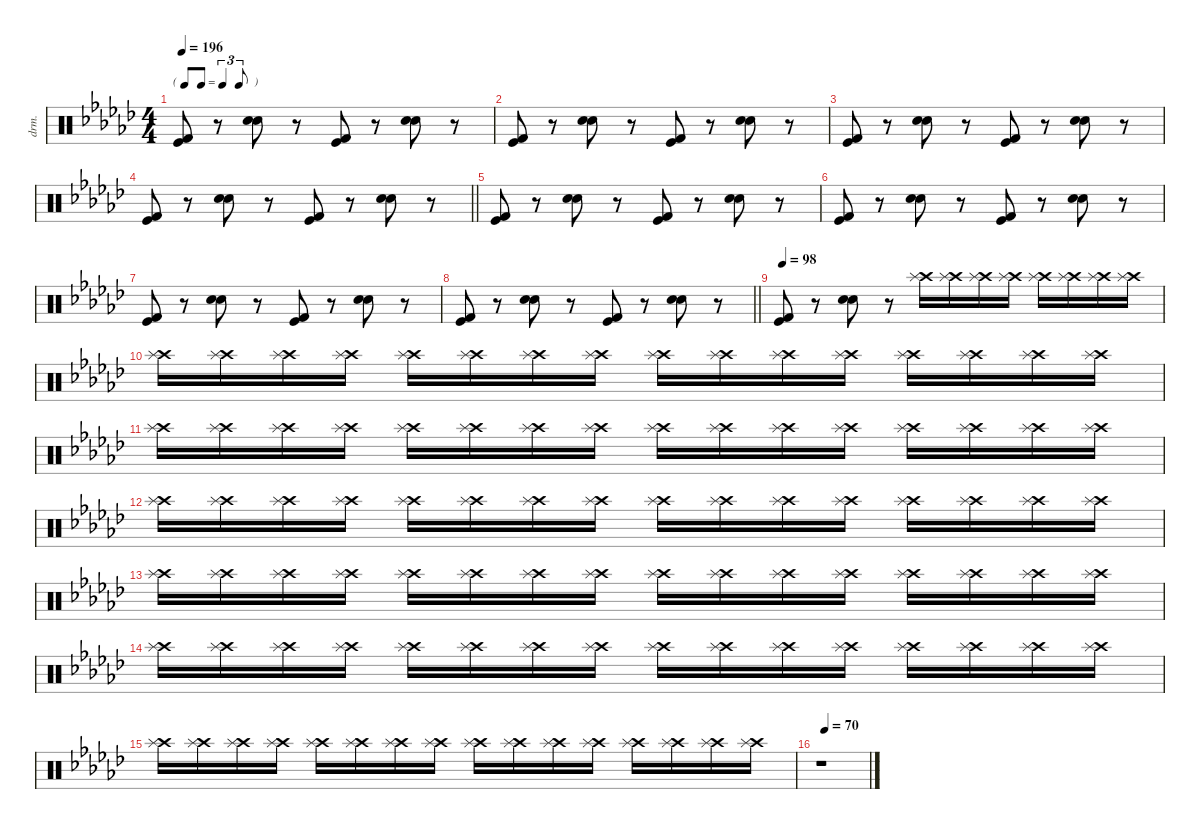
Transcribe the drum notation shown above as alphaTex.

\defaultSystemsLayout 4
\hideDynamics
\bracketExtendMode nobrackets
\otherSystemsTrackNameOrientation horizontal
\track ("Percussions" "drm.") {defaultSystemsLayout 4 instrument percussion}
\staff {score}
\articulation defaults
\ts (4 4)
\tf triplet8th
\tempo 196
\clef neutral
\ks gb
("Kick (hit) 2"{acc forcenatural} "Kick (hit)"{acc forcenatural}).8{dy f beam Up} r.8{beam Up} ("Snare (hit) 2"{acc forcenatural} "Snare (hit) 2"{acc forcenatural}).8{beam Down} r.8{beam Down} ("Kick (hit) 2"{acc forcenatural} "Kick (hit)"{acc forcenatural}).8{beam Up} r.8{beam Up} ("Snare (hit) 2"{acc forcenatural} "Snare (hit) 2"{acc forcenatural}).8{beam Down} r.8{beam Down} |
("Kick (hit) 2"{acc forcenatural} "Kick (hit)"{acc forcenatural}).8{beam Up} r.8{beam Up} ("Snare (hit) 2"{acc forcenatural} "Snare (hit) 2"{acc forcenatural}).8{beam Down} r.8{beam Down} ("Kick (hit) 2"{acc forcenatural} "Kick (hit)"{acc forcenatural}).8{beam Up} r.8{beam Up} ("Snare (hit) 2"{acc forcenatural} "Snare (hit) 2"{acc forcenatural}).8{beam Down} r.8{beam Down} |
("Kick (hit) 2"{acc forcenatural} "Kick (hit)"{acc forcenatural}).8{beam Up} r.8{beam Up} ("Snare (hit) 2"{acc forcenatural} "Snare (hit) 2"{acc forcenatural}).8{beam Down} r.8{beam Down} ("Kick (hit) 2"{acc forcenatural} "Kick (hit)"{acc forcenatural}).8{beam Up} r.8{beam Up} ("Snare (hit) 2"{acc forcenatural} "Snare (hit) 2"{acc forcenatural}).8{beam Down} r.8{beam Down} |
\barLineRight lightlight
("Kick (hit) 2"{acc forcenatural} "Kick (hit)"{acc forcenatural}).8{beam Up} r.8{beam Up} ("Snare (hit) 2"{acc forcenatural} "Snare (hit) 2"{acc forcenatural}).8{beam Down} r.8{beam Down} ("Kick (hit) 2"{acc forcenatural} "Kick (hit)"{acc forcenatural}).8{beam Up} r.8{beam Up} ("Snare (hit) 2"{acc forcenatural} "Snare (hit) 2"{acc forcenatural}).8{beam Down} r.8{beam Down} |
("Kick (hit) 2"{acc forcenatural} "Kick (hit)"{acc forcenatural}).8{beam Up} r.8{beam Up} ("Snare (hit) 2"{acc forcenatural} "Snare (hit) 2"{acc forcenatural}).8{beam Down} r.8{beam Down} ("Kick (hit) 2"{acc forcenatural} "Kick (hit)"{acc forcenatural}).8{beam Up} r.8{beam Up} ("Snare (hit) 2"{acc forcenatural} "Snare (hit) 2"{acc forcenatural}).8{beam Down} r.8{beam Down} |
("Kick (hit) 2"{acc forcenatural} "Kick (hit)"{acc forcenatural}).8{beam Up} r.8{beam Up} ("Snare (hit) 2"{acc forcenatural} "Snare (hit) 2"{acc forcenatural}).8{beam Down} r.8{beam Down} ("Kick (hit) 2"{acc forcenatural} "Kick (hit)"{acc forcenatural}).8{beam Up} r.8{beam Up} ("Snare (hit) 2"{acc forcenatural} "Snare (hit) 2"{acc forcenatural}).8{beam Down} r.8{beam Down} |
("Kick (hit) 2"{acc forcenatural} "Kick (hit)"{acc forcenatural}).8{beam Up} r.8{beam Up} ("Snare (hit) 2"{acc forcenatural} "Snare (hit) 2"{acc forcenatural}).8{beam Down} r.8{beam Down} ("Kick (hit) 2"{acc forcenatural} "Kick (hit)"{acc forcenatural}).8{beam Up} r.8{beam Up} ("Snare (hit) 2"{acc forcenatural} "Snare (hit) 2"{acc forcenatural}).8{beam Down} r.8{beam Down} |
\barLineRight lightlight
("Kick (hit) 2"{acc forcenatural} "Kick (hit)"{acc forcenatural}).8{beam Up} r.8{beam Up} ("Snare (hit) 2"{acc forcenatural} "Snare (hit) 2"{acc forcenatural}).8{beam Down} r.8{beam Down} ("Kick (hit) 2"{acc forcenatural} "Kick (hit)"{acc forcenatural}).8{beam Up} r.8{beam Up} ("Snare (hit) 2"{acc forcenatural} "Snare (hit) 2"{acc forcenatural}).8{beam Down} r.8{beam Down} |
\tempo 98
("Kick (hit) 2"{acc forcenatural} "Kick (hit)"{acc forcenatural}).8{beam Up} r.8{beam Up} ("Snare (hit) 2"{acc forcenatural} "Snare (hit) 2"{acc forcenatural}).8{beam Down} r.8{beam Down} ("Crash high (hit)"{acc forcenatural} "Splash (hit)"{acc forcenatural}).16{beam Down} ("Crash high (hit)"{acc forcenatural} "Splash (hit)"{acc forcenatural}).16{beam Down} ("Crash high (hit)"{acc forcenatural} "Splash (hit)"{acc forcenatural}).16{beam Down} ("Crash high (hit)"{acc forcenatural} "Splash (hit)"{acc forcenatural}).16{beam Down} ("Crash high (hit)"{acc forcenatural} "Splash (hit)"{acc forcenatural}).16{beam Down} ("Crash high (hit)"{acc forcenatural} "Splash (hit)"{acc forcenatural}).16{beam Down} ("Crash high (hit)"{acc forcenatural} "Splash (hit)"{acc forcenatural}).16{beam Down} ("Crash high (hit)"{acc forcenatural} "Splash (hit)"{acc forcenatural}).16{beam Down} |
("Crash high (hit)"{acc forcenatural} "Splash (hit)"{acc forcenatural}).16{beam Down} ("Crash high (hit)"{acc forcenatural} "Splash (hit)"{acc forcenatural}).16{beam Down} ("Crash high (hit)"{acc forcenatural} "Splash (hit)"{acc forcenatural}).16{beam Down} ("Crash high (hit)"{acc forcenatural} "Splash (hit)"{acc forcenatural}).16{beam Down} ("Crash high (hit)"{acc forcenatural} "Splash (hit)"{acc forcenatural}).16{beam Down} ("Crash high (hit)"{acc forcenatural} "Splash (hit)"{acc forcenatural}).16{beam Down} ("Crash high (hit)"{acc forcenatural} "Splash (hit)"{acc forcenatural}).16{beam Down} ("Crash high (hit)"{acc forcenatural} "Splash (hit)"{acc forcenatural}).16{beam Down} ("Crash high (hit)"{acc forcenatural} "Splash (hit)"{acc forcenatural}).16{beam Down} ("Crash high (hit)"{acc forcenatural} "Splash (hit)"{acc forcenatural}).16{beam Down} ("Crash high (hit)"{acc forcenatural} "Splash (hit)"{acc forcenatural}).16{beam Down} ("Crash high (hit)"{acc forcenatural} "Splash (hit)"{acc forcenatural}).16{beam Down} ("Crash high (hit)"{acc forcenatural} "Splash (hit)"{acc forcenatural}).16{beam Down} ("Crash high (hit)"{acc forcenatural} "Splash (hit)"{acc forcenatural}).16{beam Down} ("Crash high (hit)"{acc forcenatural} "Splash (hit)"{acc forcenatural}).16{beam Down} ("Crash high (hit)"{acc forcenatural} "Splash (hit)"{acc forcenatural}).16{beam Down} |
("Crash high (hit)"{acc forcenatural} "Splash (hit)"{acc forcenatural}).16{beam Down} ("Crash high (hit)"{acc forcenatural} "Splash (hit)"{acc forcenatural}).16{beam Down} ("Crash high (hit)"{acc forcenatural} "Splash (hit)"{acc forcenatural}).16{beam Down} ("Crash high (hit)"{acc forcenatural} "Splash (hit)"{acc forcenatural}).16{beam Down} ("Crash high (hit)"{acc forcenatural} "Splash (hit)"{acc forcenatural}).16{beam Down} ("Crash high (hit)"{acc forcenatural} "Splash (hit)"{acc forcenatural}).16{beam Down} ("Crash high (hit)"{acc forcenatural} "Splash (hit)"{acc forcenatural}).16{beam Down} ("Crash high (hit)"{acc forcenatural} "Splash (hit)"{acc forcenatural}).16{beam Down} ("Crash high (hit)"{acc forcenatural} "Splash (hit)"{acc forcenatural}).16{beam Down} ("Crash high (hit)"{acc forcenatural} "Splash (hit)"{acc forcenatural}).16{beam Down} ("Crash high (hit)"{acc forcenatural} "Splash (hit)"{acc forcenatural}).16{beam Down} ("Crash high (hit)"{acc forcenatural} "Splash (hit)"{acc forcenatural}).16{beam Down} ("Crash high (hit)"{acc forcenatural} "Splash (hit)"{acc forcenatural}).16{beam Down} ("Crash high (hit)"{acc forcenatural} "Splash (hit)"{acc forcenatural}).16{beam Down} ("Crash high (hit)"{acc forcenatural} "Splash (hit)"{acc forcenatural}).16{beam Down} ("Crash high (hit)"{acc forcenatural} "Splash (hit)"{acc forcenatural}).16{beam Down} |
("Crash high (hit)"{acc forcenatural} "Splash (hit)"{acc forcenatural}).16{beam Down} ("Crash high (hit)"{acc forcenatural} "Splash (hit)"{acc forcenatural}).16{beam Down} ("Crash high (hit)"{acc forcenatural} "Splash (hit)"{acc forcenatural}).16{beam Down} ("Crash high (hit)"{acc forcenatural} "Splash (hit)"{acc forcenatural}).16{beam Down} ("Crash high (hit)"{acc forcenatural} "Splash (hit)"{acc forcenatural}).16{beam Down} ("Crash high (hit)"{acc forcenatural} "Splash (hit)"{acc forcenatural}).16{beam Down} ("Crash high (hit)"{acc forcenatural} "Splash (hit)"{acc forcenatural}).16{beam Down} ("Crash high (hit)"{acc forcenatural} "Splash (hit)"{acc forcenatural}).16{beam Down} ("Crash high (hit)"{acc forcenatural} "Splash (hit)"{acc forcenatural}).16{beam Down} ("Crash high (hit)"{acc forcenatural} "Splash (hit)"{acc forcenatural}).16{beam Down} ("Crash high (hit)"{acc forcenatural} "Splash (hit)"{acc forcenatural}).16{beam Down} ("Crash high (hit)"{acc forcenatural} "Splash (hit)"{acc forcenatural}).16{beam Down} ("Crash high (hit)"{acc forcenatural} "Splash (hit)"{acc forcenatural}).16{beam Down} ("Crash high (hit)"{acc forcenatural} "Splash (hit)"{acc forcenatural}).16{beam Down} ("Crash high (hit)"{acc forcenatural} "Splash (hit)"{acc forcenatural}).16{beam Down} ("Crash high (hit)"{acc forcenatural} "Splash (hit)"{acc forcenatural}).16{beam Down} |
("Crash high (hit)"{acc forcenatural} "Splash (hit)"{acc forcenatural}).16{beam Down} ("Crash high (hit)"{acc forcenatural} "Splash (hit)"{acc forcenatural}).16{beam Down} ("Crash high (hit)"{acc forcenatural} "Splash (hit)"{acc forcenatural}).16{beam Down} ("Crash high (hit)"{acc forcenatural} "Splash (hit)"{acc forcenatural}).16{beam Down} ("Crash high (hit)"{acc forcenatural} "Splash (hit)"{acc forcenatural}).16{beam Down} ("Crash high (hit)"{acc forcenatural} "Splash (hit)"{acc forcenatural}).16{beam Down} ("Crash high (hit)"{acc forcenatural} "Splash (hit)"{acc forcenatural}).16{beam Down} ("Crash high (hit)"{acc forcenatural} "Splash (hit)"{acc forcenatural}).16{beam Down} ("Crash high (hit)"{acc forcenatural} "Splash (hit)"{acc forcenatural}).16{beam Down} ("Crash high (hit)"{acc forcenatural} "Splash (hit)"{acc forcenatural}).16{beam Down} ("Crash high (hit)"{acc forcenatural} "Splash (hit)"{acc forcenatural}).16{beam Down} ("Crash high (hit)"{acc forcenatural} "Splash (hit)"{acc forcenatural}).16{beam Down} ("Crash high (hit)"{acc forcenatural} "Splash (hit)"{acc forcenatural}).16{beam Down} ("Crash high (hit)"{acc forcenatural} "Splash (hit)"{acc forcenatural}).16{beam Down} ("Crash high (hit)"{acc forcenatural} "Splash (hit)"{acc forcenatural}).16{beam Down} ("Crash high (hit)"{acc forcenatural} "Splash (hit)"{acc forcenatural}).16{beam Down} |
("Crash high (hit)"{acc forcenatural} "Splash (hit)"{acc forcenatural}).16{beam Down} ("Crash high (hit)"{acc forcenatural} "Splash (hit)"{acc forcenatural}).16{beam Down} ("Crash high (hit)"{acc forcenatural} "Splash (hit)"{acc forcenatural}).16{beam Down} ("Crash high (hit)"{acc forcenatural} "Splash (hit)"{acc forcenatural}).16{beam Down} ("Crash high (hit)"{acc forcenatural} "Splash (hit)"{acc forcenatural}).16{beam Down} ("Crash high (hit)"{acc forcenatural} "Splash (hit)"{acc forcenatural}).16{beam Down} ("Crash high (hit)"{acc forcenatural} "Splash (hit)"{acc forcenatural}).16{beam Down} ("Crash high (hit)"{acc forcenatural} "Splash (hit)"{acc forcenatural}).16{beam Down} ("Crash high (hit)"{acc forcenatural} "Splash (hit)"{acc forcenatural}).16{beam Down} ("Crash high (hit)"{acc forcenatural} "Splash (hit)"{acc forcenatural}).16{beam Down} ("Crash high (hit)"{acc forcenatural} "Splash (hit)"{acc forcenatural}).16{beam Down} ("Crash high (hit)"{acc forcenatural} "Splash (hit)"{acc forcenatural}).16{beam Down} ("Crash high (hit)"{acc forcenatural} "Splash (hit)"{acc forcenatural}).16{beam Down} ("Crash high (hit)"{acc forcenatural} "Splash (hit)"{acc forcenatural}).16{beam Down} ("Crash high (hit)"{acc forcenatural} "Splash (hit)"{acc forcenatural}).16{beam Down} ("Crash high (hit)"{acc forcenatural} "Splash (hit)"{acc forcenatural}).16{beam Down} |
("Crash high (hit)"{acc forcenatural} "Splash (hit)"{acc forcenatural}).16{beam Down} ("Crash high (hit)"{acc forcenatural} "Splash (hit)"{acc forcenatural}).16{beam Down} ("Crash high (hit)"{acc forcenatural} "Splash (hit)"{acc forcenatural}).16{beam Down} ("Crash high (hit)"{acc forcenatural} "Splash (hit)"{acc forcenatural}).16{beam Down} ("Crash high (hit)"{acc forcenatural} "Splash (hit)"{acc forcenatural}).16{beam Down} ("Crash high (hit)"{acc forcenatural} "Splash (hit)"{acc forcenatural}).16{beam Down} ("Crash high (hit)"{acc forcenatural} "Splash (hit)"{acc forcenatural}).16{beam Down} ("Crash high (hit)"{acc forcenatural} "Splash (hit)"{acc forcenatural}).16{beam Down} ("Crash high (hit)"{acc forcenatural} "Splash (hit)"{acc forcenatural}).16{beam Down} ("Crash high (hit)"{acc forcenatural} "Splash (hit)"{acc forcenatural}).16{beam Down} ("Crash high (hit)"{acc forcenatural} "Splash (hit)"{acc forcenatural}).16{beam Down} ("Crash high (hit)"{acc forcenatural} "Splash (hit)"{acc forcenatural}).16{beam Down} ("Crash high (hit)"{acc forcenatural} "Splash (hit)"{acc forcenatural}).16{beam Down} ("Crash high (hit)"{acc forcenatural} "Splash (hit)"{acc forcenatural}).16{beam Down} ("Crash high (hit)"{acc forcenatural} "Splash (hit)"{acc forcenatural}).16{beam Down} ("Crash high (hit)"{acc forcenatural} "Splash (hit)"{acc forcenatural}).16{beam Down} |
\tempo (70 0.09375)
r.1{beam Down}
